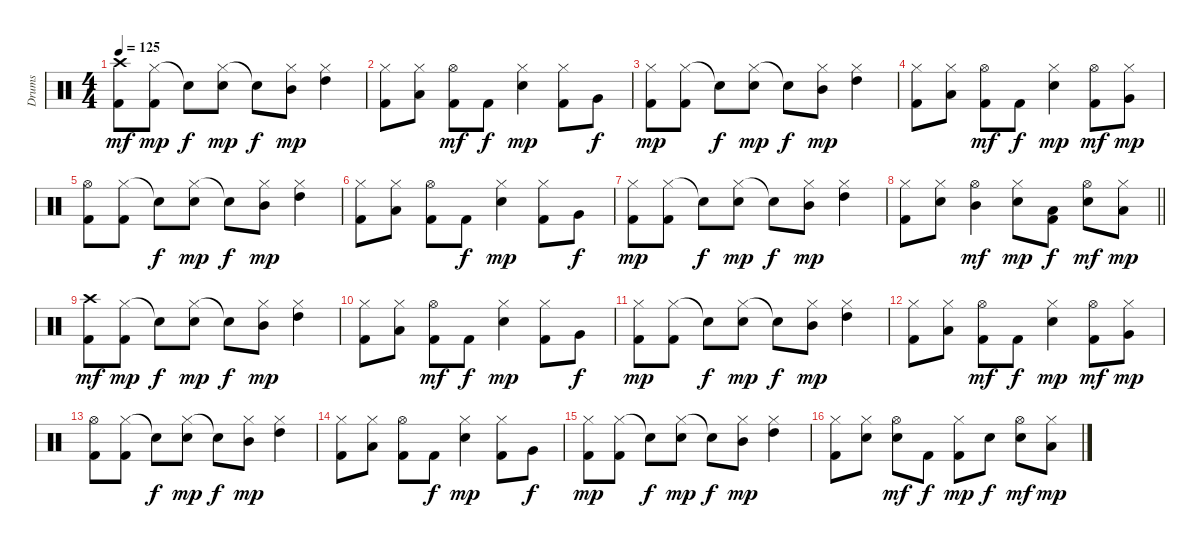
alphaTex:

\track ("Drums" "Drums") {instrument percussion}
\staff {score}
\articulation defaults
\ts (4 4)
\tempo 125
\clef neutral
\ks c
("Crash high (hit)" "Kick (hit) 2").8{dy mf} ("Hi-Hat (closed)" "Kick (hit) 2").8{dy mp} "Snare (hit)"{t}.8{dy f} ("Hi-Hat (closed)" "Snare (hit) 2").8{dy mp} "Snare (hit)"{t}.8{dy f} ("Hi-Hat (closed)" "Mid Tom (hit)").8{dy mp} ("Hi-Hat (closed)" "High Tom (hit)").4 |
("Hi-Hat (closed)" "Kick (hit) 2").8 ("Hi-Hat (closed)" "Low Tom (hit)").8 ("Hi-Hat (open)" "Kick (hit) 2").8{dy mf} "Kick (hit) 2".8{dy f} ("Hi-Hat (closed)" "Snare (hit) 2").4{dy mp} ("Hi-Hat (closed)" "Kick (hit) 2").8 "Very Low Tom (hit)".8{dy f} |
("Hi-Hat (closed)" "Kick (hit) 2").8{dy mp} ("Hi-Hat (closed)" "Kick (hit) 2").8 "Snare (hit)"{t}.8{dy f} ("Hi-Hat (closed)" "Snare (hit) 2").8{dy mp} "Snare (hit)"{t}.8{dy f} ("Hi-Hat (closed)" "Mid Tom (hit)").8{dy mp} ("Hi-Hat (closed)" "High Tom (hit)").4 |
("Hi-Hat (closed)" "Kick (hit) 2").8 ("Hi-Hat (closed)" "Low Tom (hit)").8 ("Hi-Hat (open)" "Kick (hit) 2").8{dy mf} "Kick (hit) 2".8{dy f} ("Hi-Hat (closed)" "Snare (hit) 2").4{dy mp} ("Hi-Hat (open)" "Kick (hit) 2").8{dy mf} ("Hi-Hat (closed)" "Very Low Tom (hit)").8{dy mp} |
("Hi-Hat (open)" "Kick (hit) 2").8 ("Hi-Hat (closed)" "Kick (hit) 2").8 "Snare (hit)"{t}.8{dy f} ("Hi-Hat (closed)" "Snare (hit) 2").8{dy mp} "Snare (hit)"{t}.8{dy f} ("Hi-Hat (closed)" "Mid Tom (hit)").8{dy mp} ("Hi-Hat (closed)" "High Tom (hit)").4 |
("Hi-Hat (closed)" "Kick (hit) 2").8 ("Hi-Hat (closed)" "Low Tom (hit)").8 ("Hi-Hat (open)" "Kick (hit) 2").8 "Kick (hit) 2".8{dy f} ("Hi-Hat (closed)" "Snare (hit) 2").4{dy mp} ("Hi-Hat (closed)" "Kick (hit) 2").8 "Very Low Tom (hit)".8{dy f} |
("Hi-Hat (closed)" "Kick (hit) 2").8{dy mp} ("Hi-Hat (closed)" "Kick (hit) 2").8 "Snare (hit)"{t}.8{dy f} ("Hi-Hat (closed)" "Snare (hit) 2").8{dy mp} "Snare (hit)"{t}.8{dy f} ("Hi-Hat (closed)" "Mid Tom (hit)").8{dy mp} ("Hi-Hat (closed)" "High Tom (hit)").4 |
\barLineRight lightlight
("Hi-Hat (closed)" "Kick (hit) 2").8 ("Hi-Hat (closed)" "Snare (hit) 2").8 ("Hi-Hat (open)" "Mid Tom (hit)").4{dy mf} ("Hi-Hat (closed)" "Snare (hit) 2").8{dy mp} ("Low Tom (hit)" "Kick (hit) 2").8{dy f} ("Hi-Hat (open)" "Snare (hit) 2").8{dy mf} ("Hi-Hat (closed)" "Low Tom (hit)").8{dy mp} |
\section ("" "")
("Crash high (hit)" "Kick (hit) 2").8{dy mf} ("Hi-Hat (closed)" "Kick (hit) 2").8{dy mp} "Snare (hit)"{t}.8{dy f} ("Hi-Hat (closed)" "Snare (hit) 2").8{dy mp} "Snare (hit)"{t}.8{dy f} ("Hi-Hat (closed)" "Mid Tom (hit)").8{dy mp} ("Hi-Hat (closed)" "High Tom (hit)").4 |
("Hi-Hat (closed)" "Kick (hit) 2").8 ("Hi-Hat (closed)" "Low Tom (hit)").8 ("Hi-Hat (open)" "Kick (hit) 2").8{dy mf} "Kick (hit) 2".8{dy f} ("Hi-Hat (closed)" "Snare (hit) 2").4{dy mp} ("Hi-Hat (closed)" "Kick (hit) 2").8 "Very Low Tom (hit)".8{dy f} |
("Hi-Hat (closed)" "Kick (hit) 2").8{dy mp} ("Hi-Hat (closed)" "Kick (hit) 2").8 "Snare (hit)"{t}.8{dy f} ("Hi-Hat (closed)" "Snare (hit) 2").8{dy mp} "Snare (hit)"{t}.8{dy f} ("Hi-Hat (closed)" "Mid Tom (hit)").8{dy mp} ("Hi-Hat (closed)" "High Tom (hit)").4 |
("Hi-Hat (closed)" "Kick (hit) 2").8 ("Hi-Hat (closed)" "Low Tom (hit)").8 ("Hi-Hat (open)" "Kick (hit) 2").8{dy mf} "Kick (hit) 2".8{dy f} ("Hi-Hat (closed)" "Snare (hit) 2").4{dy mp} ("Hi-Hat (open)" "Kick (hit) 2").8{dy mf} ("Hi-Hat (closed)" "Very Low Tom (hit)").8{dy mp} |
("Hi-Hat (open)" "Kick (hit) 2").8 ("Hi-Hat (closed)" "Kick (hit) 2").8 "Snare (hit)"{t}.8{dy f} ("Hi-Hat (closed)" "Snare (hit) 2").8{dy mp} "Snare (hit)"{t}.8{dy f} ("Hi-Hat (closed)" "Mid Tom (hit)").8{dy mp} ("Hi-Hat (closed)" "High Tom (hit)").4 |
("Hi-Hat (closed)" "Kick (hit) 2").8 ("Hi-Hat (closed)" "Low Tom (hit)").8 ("Hi-Hat (open)" "Kick (hit) 2").8 "Kick (hit) 2".8{dy f} ("Hi-Hat (closed)" "Snare (hit) 2").4{dy mp} ("Hi-Hat (closed)" "Kick (hit) 2").8 "Very Low Tom (hit)".8{dy f} |
("Hi-Hat (closed)" "Kick (hit) 2").8{dy mp} ("Hi-Hat (closed)" "Kick (hit) 2").8 "Snare (hit)"{t}.8{dy f} ("Hi-Hat (closed)" "Snare (hit) 2").8{dy mp} "Snare (hit)"{t}.8{dy f} ("Hi-Hat (closed)" "Mid Tom (hit)").8{dy mp} ("Hi-Hat (closed)" "High Tom (hit)").4 |
("Hi-Hat (closed)" "Kick (hit) 2").8 ("Hi-Hat (closed)" "Snare (hit) 2").8 ("Hi-Hat (open)" "Snare (hit) 2").8{dy mf} "Kick (hit) 2".8{dy f} ("Hi-Hat (closed)" "Kick (hit) 2").8{dy mp} "Snare (hit) 2".8{dy f} ("Hi-Hat (open)" "Snare (hit) 2").8{dy mf} ("Hi-Hat (closed)" "Low Tom (hit)").8{dy mp}
